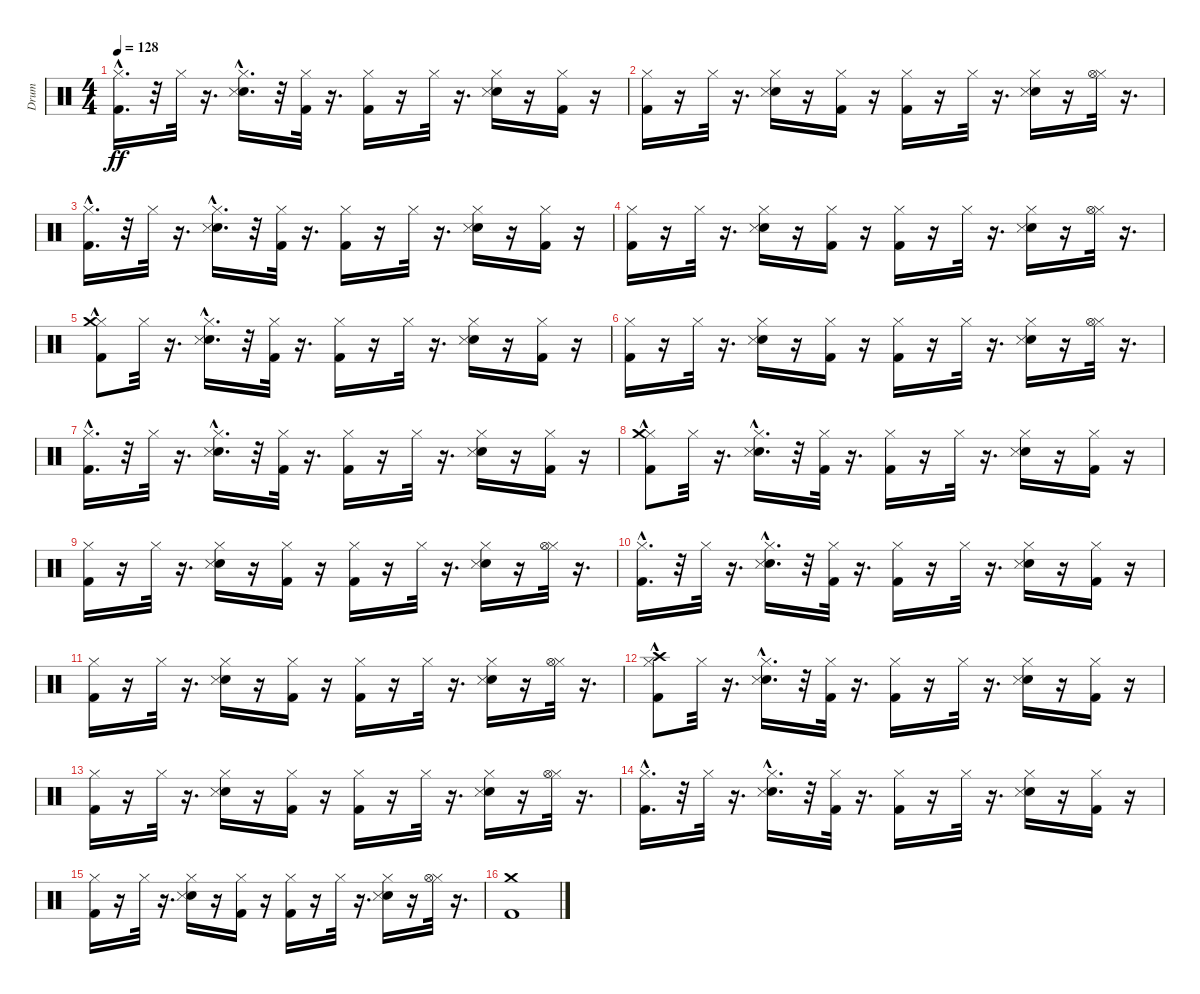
\track ("Drum" "Drum") {instrument percussion}
\staff {score}
\articulation defaults
\ts (4 4)
\tempo 128
\clef neutral
\ks c
("Kick (hit) 2"{hac} "Hi-Hat (closed)").16{d dy ff} r.32 "Hi-Hat (closed)".32 r.16{d} ("Electric Snare (hit)" "Hi-Hat (closed)" "Snare (side stick) 3"{hac}).16{d} r.32 ("Kick (hit) 2" "Hi-Hat (closed)").32 r.16{d} ("Kick (hit) 2" "Hi-Hat (closed)").16 r.16 "Hi-Hat (closed)".32 r.16{d} ("Electric Snare (hit)" "Hi-Hat (closed)" "Snare (side stick) 3").16 r.16 ("Kick (hit) 2" "Hi-Hat (closed)").16 r.16 |
("Hi-Hat (closed)" "Kick (hit) 2").16 r.16 "Hi-Hat (closed)".32 r.16{d} ("Electric Snare (hit)" "Hi-Hat (closed)" "Snare (side stick) 3").16 r.16 ("Kick (hit) 2" "Hi-Hat (closed)").16 r.16 ("Kick (hit) 2" "Hi-Hat (closed)").16 r.16 "Hi-Hat (closed)".32 r.16{d} ("Electric Snare (hit)" "Hi-Hat (closed)" "Snare (side stick) 3").16 r.16 ("Hi-Hat (closed)" "Hi-Hat (open)").32 r.16{d} |
("Kick (hit) 2"{hac} "Hi-Hat (closed)").16{d} r.32 "Hi-Hat (closed)".32 r.16{d} ("Electric Snare (hit)" "Hi-Hat (closed)" "Snare (side stick) 3"{hac}).16{d} r.32 ("Kick (hit) 2" "Hi-Hat (closed)").32 r.16{d} ("Kick (hit) 2" "Hi-Hat (closed)").16 r.16 "Hi-Hat (closed)".32 r.16{d} ("Electric Snare (hit)" "Hi-Hat (closed)" "Snare (side stick) 3").16 r.16 ("Kick (hit) 2" "Hi-Hat (closed)").16 r.16 |
("Hi-Hat (closed)" "Kick (hit) 2").16 r.16 "Hi-Hat (closed)".32 r.16{d} ("Electric Snare (hit)" "Hi-Hat (closed)" "Snare (side stick) 3").16 r.16 ("Kick (hit) 2" "Hi-Hat (closed)").16 r.16 ("Kick (hit) 2" "Hi-Hat (closed)").16 r.16 "Hi-Hat (closed)".32 r.16{d} ("Electric Snare (hit)" "Hi-Hat (closed)" "Snare (side stick) 3").16 r.16 ("Hi-Hat (closed)" "Hi-Hat (open)").32 r.16{d} |
("Kick (hit) 2"{hac} "Hi-Hat (closed)" "Crash medium (hit)").8 "Hi-Hat (closed)".32 r.16{d} ("Electric Snare (hit)" "Hi-Hat (closed)" "Snare (side stick) 3"{hac}).16{d} r.32 ("Kick (hit) 2" "Hi-Hat (closed)").32 r.16{d} ("Kick (hit) 2" "Hi-Hat (closed)").16 r.16 "Hi-Hat (closed)".32 r.16{d} ("Electric Snare (hit)" "Hi-Hat (closed)" "Snare (side stick) 3").16 r.16 ("Kick (hit) 2" "Hi-Hat (closed)").16 r.16 |
("Hi-Hat (closed)" "Kick (hit) 2").16 r.16 "Hi-Hat (closed)".32 r.16{d} ("Electric Snare (hit)" "Hi-Hat (closed)" "Snare (side stick) 3").16 r.16 ("Kick (hit) 2" "Hi-Hat (closed)").16 r.16 ("Kick (hit) 2" "Hi-Hat (closed)").16 r.16 "Hi-Hat (closed)".32 r.16{d} ("Electric Snare (hit)" "Hi-Hat (closed)" "Snare (side stick) 3").16 r.16 ("Hi-Hat (closed)" "Hi-Hat (open)").32 r.16{d} |
("Kick (hit) 2"{hac} "Hi-Hat (closed)").16{d} r.32 "Hi-Hat (closed)".32 r.16{d} ("Electric Snare (hit)" "Hi-Hat (closed)" "Snare (side stick) 3"{hac}).16{d} r.32 ("Kick (hit) 2" "Hi-Hat (closed)").32 r.16{d} ("Kick (hit) 2" "Hi-Hat (closed)").16 r.16 "Hi-Hat (closed)".32 r.16{d} ("Electric Snare (hit)" "Hi-Hat (closed)" "Snare (side stick) 3").16 r.16 ("Kick (hit) 2" "Hi-Hat (closed)").16 r.16 |
("Kick (hit) 2"{hac} "Hi-Hat (closed)" "Crash medium (hit)").8 "Hi-Hat (closed)".32 r.16{d} ("Electric Snare (hit)" "Hi-Hat (closed)" "Snare (side stick) 3"{hac}).16{d} r.32 ("Kick (hit) 2" "Hi-Hat (closed)").32 r.16{d} ("Kick (hit) 2" "Hi-Hat (closed)").16 r.16 "Hi-Hat (closed)".32 r.16{d} ("Electric Snare (hit)" "Hi-Hat (closed)" "Snare (side stick) 3").16 r.16 ("Kick (hit) 2" "Hi-Hat (closed)").16 r.16 |
("Hi-Hat (closed)" "Kick (hit) 2").16 r.16 "Hi-Hat (closed)".32 r.16{d} ("Electric Snare (hit)" "Hi-Hat (closed)" "Snare (side stick) 3").16 r.16 ("Kick (hit) 2" "Hi-Hat (closed)").16 r.16 ("Kick (hit) 2" "Hi-Hat (closed)").16 r.16 "Hi-Hat (closed)".32 r.16{d} ("Electric Snare (hit)" "Hi-Hat (closed)" "Snare (side stick) 3").16 r.16 ("Hi-Hat (closed)" "Hi-Hat (open)").32 r.16{d} |
("Kick (hit) 2"{hac} "Hi-Hat (closed)").16{d} r.32 "Hi-Hat (closed)".32 r.16{d} ("Electric Snare (hit)" "Hi-Hat (closed)" "Snare (side stick) 3"{hac}).16{d} r.32 ("Kick (hit) 2" "Hi-Hat (closed)").32 r.16{d} ("Kick (hit) 2" "Hi-Hat (closed)").16 r.16 "Hi-Hat (closed)".32 r.16{d} ("Electric Snare (hit)" "Hi-Hat (closed)" "Snare (side stick) 3").16 r.16 ("Kick (hit) 2" "Hi-Hat (closed)").16 r.16 |
("Hi-Hat (closed)" "Kick (hit) 2").16 r.16 "Hi-Hat (closed)".32 r.16{d} ("Electric Snare (hit)" "Hi-Hat (closed)" "Snare (side stick) 3").16 r.16 ("Kick (hit) 2" "Hi-Hat (closed)").16 r.16 ("Kick (hit) 2" "Hi-Hat (closed)").16 r.16 "Hi-Hat (closed)".32 r.16{d} ("Electric Snare (hit)" "Hi-Hat (closed)" "Snare (side stick) 3").16 r.16 ("Hi-Hat (closed)" "Hi-Hat (open)").32 r.16{d} |
("Kick (hit) 2"{hac} "Hi-Hat (closed)" "Crash high (hit)").8 "Hi-Hat (closed)".32 r.16{d} ("Electric Snare (hit)" "Hi-Hat (closed)" "Snare (side stick) 3"{hac}).16{d} r.32 ("Kick (hit) 2" "Hi-Hat (closed)").32 r.16{d} ("Kick (hit) 2" "Hi-Hat (closed)").16 r.16 "Hi-Hat (closed)".32 r.16{d} ("Electric Snare (hit)" "Hi-Hat (closed)" "Snare (side stick) 3").16 r.16 ("Kick (hit) 2" "Hi-Hat (closed)").16 r.16 |
("Hi-Hat (closed)" "Kick (hit) 2").16 r.16 "Hi-Hat (closed)".32 r.16{d} ("Electric Snare (hit)" "Hi-Hat (closed)" "Snare (side stick) 3").16 r.16 ("Kick (hit) 2" "Hi-Hat (closed)").16 r.16 ("Kick (hit) 2" "Hi-Hat (closed)").16 r.16 "Hi-Hat (closed)".32 r.16{d} ("Electric Snare (hit)" "Hi-Hat (closed)" "Snare (side stick) 3").16 r.16 ("Hi-Hat (closed)" "Hi-Hat (open)").32 r.16{d} |
("Kick (hit) 2"{hac} "Hi-Hat (closed)").16{d} r.32 "Hi-Hat (closed)".32 r.16{d} ("Electric Snare (hit)" "Hi-Hat (closed)" "Snare (side stick) 3"{hac}).16{d} r.32 ("Kick (hit) 2" "Hi-Hat (closed)").32 r.16{d} ("Kick (hit) 2" "Hi-Hat (closed)").16 r.16 "Hi-Hat (closed)".32 r.16{d} ("Electric Snare (hit)" "Hi-Hat (closed)" "Snare (side stick) 3").16 r.16 ("Kick (hit) 2" "Hi-Hat (closed)").16 r.16 |
("Hi-Hat (closed)" "Kick (hit) 2").16 r.16 "Hi-Hat (closed)".32 r.16{d} ("Electric Snare (hit)" "Hi-Hat (closed)" "Snare (side stick) 3").16 r.16 ("Kick (hit) 2" "Hi-Hat (closed)").16 r.16 ("Kick (hit) 2" "Hi-Hat (closed)").16 r.16 "Hi-Hat (closed)".32 r.16{d} ("Electric Snare (hit)" "Hi-Hat (closed)" "Snare (side stick) 3").16 r.16 ("Hi-Hat (closed)" "Hi-Hat (open)").32 r.16{d} |
("Kick (hit) 2" "Crash medium (hit)").1{volume 11}
